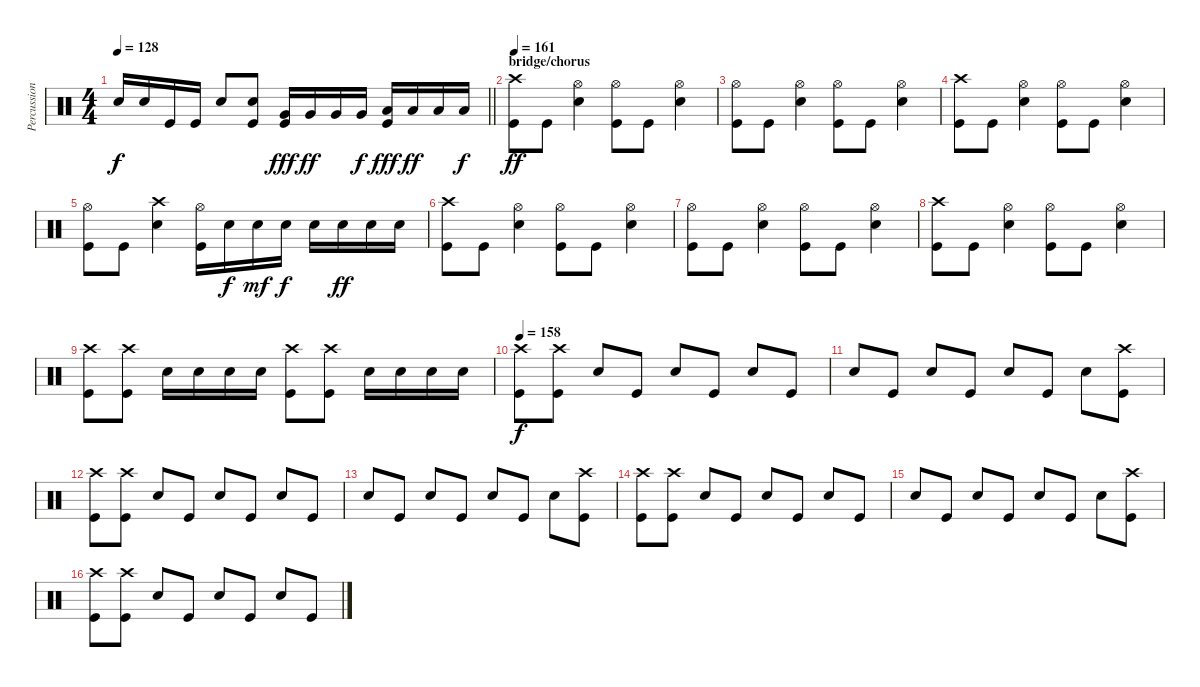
\track ("Percussion" "Percussion") {instrument percussion}
\staff {score}
\articulation defaults
\ts (4 4)
\tempo 128
\clef neutral
\barLineRight lightlight
\ks c "Snare (hit) 2".16{dy f} "Snare (hit) 2".16 "Kick (hit)".16 "Kick (hit)".16 "Snare (hit) 2".8
("Snare (hit) 2" "Kick (hit)").8 ("Very Low Tom (hit)" "Kick (hit)").16{dy fff} "Very Low Tom (hit)".16{dy ff} "Very Low Tom (hit)".16 "Very Low Tom (hit)".16{dy f} ("Low Floor Tom (hit)" "Kick (hit)").16{dy fff} "Low Floor Tom (hit)".16{dy ff} "Low Floor Tom (hit)".16 "Low Floor Tom (hit)".16{dy f} |
\section ("" "bridge/chorus")
\tempo 161
("Crash high (hit)" "Kick (hit)").8{dy ff} "Kick (hit)".8 ("Hi-Hat (open)" "Snare (hit) 2").4 ("Hi-Hat (open)" "Kick (hit)").8 "Kick (hit)".8 ("Hi-Hat (open)" "Snare (hit) 2").4 |
("Hi-Hat (open)" "Kick (hit)").8 "Kick (hit)".8 ("Hi-Hat (open)" "Snare (hit) 2").4 ("Hi-Hat (open)" "Kick (hit)").8 "Kick (hit)".8 ("Hi-Hat (open)" "Snare (hit) 2").4 |
("Crash high (hit)" "Kick (hit)").8 "Kick (hit)".8 ("Hi-Hat (open)" "Snare (hit) 2").4 ("Hi-Hat (open)" "Kick (hit)").8 "Kick (hit)".8 ("Hi-Hat (open)" "Snare (hit) 2").4 |
("Hi-Hat (open)" "Kick (hit)").8 "Kick (hit)".8 ("Crash high (hit)" "Snare (hit) 2").4 ("Hi-Hat (open)" "Kick (hit)").16 "Snare (hit) 2".16{dy f} "Snare (hit) 2".16{dy mf} "Snare (hit) 2".16{dy f} "Snare (hit) 2".16 "Snare (hit) 2".16{dy ff} "Snare (hit) 2".16 "Snare (hit) 2".16 |
("Crash high (hit)" "Kick (hit)").8 "Kick (hit)".8 ("Hi-Hat (open)" "Snare (hit) 2").4 ("Hi-Hat (open)" "Kick (hit)").8 "Kick (hit)".8 ("Hi-Hat (open)" "Snare (hit) 2").4 |
("Hi-Hat (open)" "Kick (hit)").8 "Kick (hit)".8 ("Hi-Hat (open)" "Snare (hit) 2").4 ("Hi-Hat (open)" "Kick (hit)").8 "Kick (hit)".8 ("Hi-Hat (open)" "Snare (hit) 2").4 |
("Crash high (hit)" "Kick (hit)").8 "Kick (hit)".8 ("Hi-Hat (open)" "Snare (hit) 2").4 ("Hi-Hat (open)" "Kick (hit)").8 "Kick (hit)".8 ("Hi-Hat (open)" "Snare (hit) 2").4 |
("Crash high (hit)" "Kick (hit)").8 ("Crash high (hit)" "Kick (hit)").8 "Snare (hit) 2".16 "Snare (hit) 2".16 "Snare (hit) 2".16 "Snare (hit) 2".16 ("Crash high (hit)" "Kick (hit)").8 ("Crash high (hit)" "Kick (hit)").8 "Snare (hit) 2".16 "Snare (hit) 2".16 "Snare (hit) 2".16 "Snare (hit) 2".16 |
\tempo 158
("Crash high (hit)" "Kick (hit)").8{dy f} ("Crash high (hit)" "Kick (hit)").8 "Snare (hit) 2".8 "Kick (hit)".8 "Snare (hit) 2".8 "Kick (hit)".8 "Snare (hit) 2".8 "Kick (hit)".8 |
"Snare (hit) 2".8 "Kick (hit)".8 "Snare (hit) 2".8 "Kick (hit)".8 "Snare (hit) 2".8 "Kick (hit)".8 "Snare (hit) 2".8 ("Crash high (hit)" "Kick (hit)").8 |
("Crash high (hit)" "Kick (hit)").8 ("Crash high (hit)" "Kick (hit)").8 "Snare (hit) 2".8 "Kick (hit)".8 "Snare (hit) 2".8 "Kick (hit)".8 "Snare (hit) 2".8 "Kick (hit)".8 |
"Snare (hit) 2".8 "Kick (hit)".8 "Snare (hit) 2".8 "Kick (hit)".8 "Snare (hit) 2".8 "Kick (hit)".8 "Snare (hit) 2".8 ("Crash high (hit)" "Kick (hit)").8 |
("Crash high (hit)" "Kick (hit)").8 ("Crash high (hit)" "Kick (hit)").8 "Snare (hit) 2".8 "Kick (hit)".8 "Snare (hit) 2".8 "Kick (hit)".8 "Snare (hit) 2".8 "Kick (hit)".8 |
"Snare (hit) 2".8 "Kick (hit)".8 "Snare (hit) 2".8 "Kick (hit)".8 "Snare (hit) 2".8 "Kick (hit)".8 "Snare (hit) 2".8 ("Crash high (hit)" "Kick (hit)").8 |
("Crash high (hit)" "Kick (hit)").8 ("Crash high (hit)" "Kick (hit)").8 "Snare (hit) 2".8 "Kick (hit)".8 "Snare (hit) 2".8 "Kick (hit)".8 "Snare (hit) 2".8 "Kick (hit)".8
